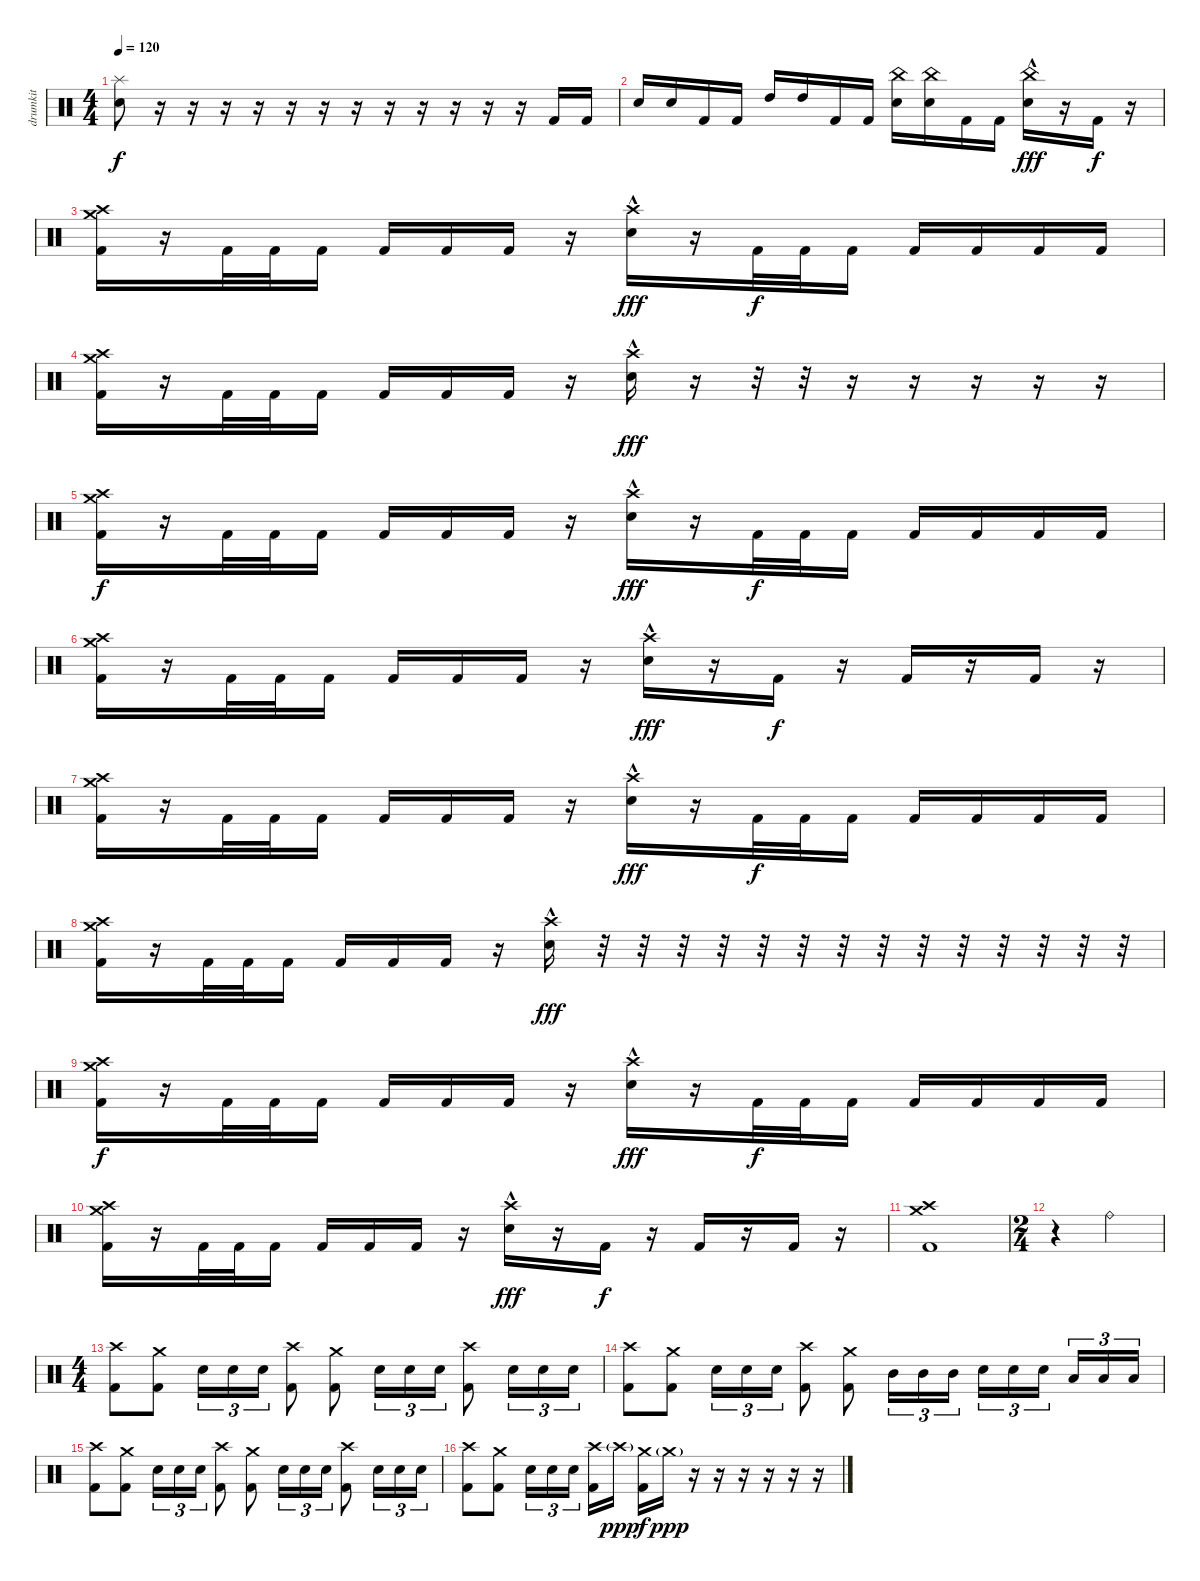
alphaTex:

\track ("drumkit" "drumkit") {instrument percussion}
\staff {score}
\articulation defaults
\ts (4 4)
\tempo 120
\clef neutral
\ks c
("Splash (hit)" "Electric Snare (hit)").8{dy f} r.16 r.16 r.16 r.16 r.16 r.16 r.16 r.16 r.16 r.16 r.16 r.16 "Kick (hit) 2".16 "Kick (hit) 2".16 |
"Electric Snare (hit)".16 "Electric Snare (hit)".16 "Kick (hit) 2".16 "Kick (hit) 2".16 "High Tom (hit)".16 "High Tom (hit)".16 "Kick (hit) 2".16 "Kick (hit) 2".16 ("China (hit)" "Electric Snare (hit)").16 ("China (hit)" "Electric Snare (hit)").16 "Kick (hit) 2".16 "Kick (hit) 2".16 ("China (hit)" "Electric Snare (hit)"{hac}).16{dy fff} r.16 "Kick (hit) 2".16{dy f} r.16 |
("Crash high (hit)" "Crash medium (hit)" "Kick (hit) 2").16 r.16 "Kick (hit) 2".32 "Kick (hit) 2".32 "Kick (hit) 2".16 "Kick (hit) 2".16 "Kick (hit) 2".16 "Kick (hit) 2".16 r.16 ("Crash high (hit)" "Electric Snare (hit)"{hac}).16{dy fff} r.16 "Kick (hit) 2".32{dy f} "Kick (hit) 2".32 "Kick (hit) 2".16 "Kick (hit) 2".16 "Kick (hit) 2".16 "Kick (hit) 2".16 "Kick (hit) 2".16 |
("Crash high (hit)" "Crash medium (hit)" "Kick (hit) 2").16 r.16 "Kick (hit) 2".32 "Kick (hit) 2".32 "Kick (hit) 2".16 "Kick (hit) 2".16 "Kick (hit) 2".16 "Kick (hit) 2".16 r.16 ("Crash high (hit)" "Electric Snare (hit)"{hac}).16{dy fff} r.16 r.32 r.32 r.16 r.16 r.16 r.16 r.16 |
("Crash high (hit)" "Crash medium (hit)" "Kick (hit) 2").16{dy f} r.16 "Kick (hit) 2".32 "Kick (hit) 2".32 "Kick (hit) 2".16 "Kick (hit) 2".16 "Kick (hit) 2".16 "Kick (hit) 2".16 r.16 ("Crash high (hit)" "Electric Snare (hit)"{hac}).16{dy fff} r.16 "Kick (hit) 2".32{dy f} "Kick (hit) 2".32 "Kick (hit) 2".16 "Kick (hit) 2".16 "Kick (hit) 2".16 "Kick (hit) 2".16 "Kick (hit) 2".16 |
("Crash high (hit)" "Crash medium (hit)" "Kick (hit) 2").16 r.16 "Kick (hit) 2".32 "Kick (hit) 2".32 "Kick (hit) 2".16 "Kick (hit) 2".16 "Kick (hit) 2".16 "Kick (hit) 2".16 r.16 ("Crash high (hit)" "Electric Snare (hit)"{hac}).16{dy fff} r.16 "Kick (hit) 2".16{dy f} r.16 "Kick (hit) 2".16 r.16 "Kick (hit) 2".16 r.16 |
("Crash high (hit)" "Crash medium (hit)" "Kick (hit) 2").16 r.16 "Kick (hit) 2".32 "Kick (hit) 2".32 "Kick (hit) 2".16 "Kick (hit) 2".16 "Kick (hit) 2".16 "Kick (hit) 2".16 r.16 ("Crash high (hit)" "Electric Snare (hit)"{hac}).16{dy fff} r.16 "Kick (hit) 2".32{dy f} "Kick (hit) 2".32 "Kick (hit) 2".16 "Kick (hit) 2".16 "Kick (hit) 2".16 "Kick (hit) 2".16 "Kick (hit) 2".16 |
("Crash high (hit)" "Crash medium (hit)" "Kick (hit) 2").16 r.16 "Kick (hit) 2".32 "Kick (hit) 2".32 "Kick (hit) 2".16 "Kick (hit) 2".16 "Kick (hit) 2".16 "Kick (hit) 2".16 r.16 ("Crash high (hit)" "Electric Snare (hit)"{hac}).16{dy fff} r.32 r.32 r.32 r.32 r.32 r.32 r.32 r.32 r.32 r.32 r.32 r.32 r.32 r.32 |
("Crash high (hit)" "Crash medium (hit)" "Kick (hit) 2").16{dy f} r.16 "Kick (hit) 2".32 "Kick (hit) 2".32 "Kick (hit) 2".16 "Kick (hit) 2".16 "Kick (hit) 2".16 "Kick (hit) 2".16 r.16 ("Crash high (hit)" "Electric Snare (hit)"{hac}).16{dy fff} r.16 "Kick (hit) 2".32{dy f} "Kick (hit) 2".32 "Kick (hit) 2".16 "Kick (hit) 2".16 "Kick (hit) 2".16 "Kick (hit) 2".16 "Kick (hit) 2".16 |
("Crash high (hit)" "Crash medium (hit)" "Kick (hit) 2").16 r.16 "Kick (hit) 2".32 "Kick (hit) 2".32 "Kick (hit) 2".16 "Kick (hit) 2".16 "Kick (hit) 2".16 "Kick (hit) 2".16 r.16 ("Crash high (hit)" "Electric Snare (hit)"{hac}).16{dy fff} r.16 "Kick (hit) 2".16{dy f} r.16 "Kick (hit) 2".16 r.16 "Kick (hit) 2".16 r.16 |
("Crash high (hit)" "Crash medium (hit)" "Kick (hit) 2").1 |
\ts (2 4)
r.4 "Ride (bell)".4 |
\ts (4 4)
("Crash high (hit)" "Kick (hit) 2").8 ("Crash medium (hit)" "Kick (hit) 2").8 "Electric Snare (hit)".16{tu (3 2)} "Electric Snare (hit)".16{tu (3 2)} "Electric Snare (hit)".16{tu (3 2)} ("Crash high (hit)" "Kick (hit) 2").8 ("Crash medium (hit)" "Kick (hit) 2").8 "Electric Snare (hit)".16{tu (3 2)} "Electric Snare (hit)".16{tu (3 2)} "Electric Snare (hit)".16{tu (3 2)} ("Crash high (hit)" "Kick (hit) 2").8 "Electric Snare (hit)".16{tu (3 2)} "Electric Snare (hit)".16{tu (3 2)} "Electric Snare (hit)".16{tu (3 2)} |
("Crash high (hit)" "Kick (hit) 2").8 ("Crash medium (hit)" "Kick (hit) 2").8 "Electric Snare (hit)".16{tu (3 2)} "Electric Snare (hit)".16{tu (3 2)} "Electric Snare (hit)".16{tu (3 2)} ("Crash high (hit)" "Kick (hit) 2").8 ("Crash medium (hit)" "Kick (hit) 2").8 "Mid Tom (hit)".16{tu (3 2)} "Mid Tom (hit)".16{tu (3 2)} "Mid Tom (hit)".16{tu (3 2)} "Electric Snare (hit)".16{tu (3 2)} "Electric Snare (hit)".16{tu (3 2)} "Electric Snare (hit)".16{tu (3 2) beam splitsecondary} "Low Tom (hit)".16{tu (3 2)} "Low Tom (hit)".16{tu (3 2)} "Low Tom (hit)".16{tu (3 2)} |
("Crash high (hit)" "Kick (hit) 2").8 ("Crash medium (hit)" "Kick (hit) 2").8 "Electric Snare (hit)".16{tu (3 2)} "Electric Snare (hit)".16{tu (3 2)} "Electric Snare (hit)".16{tu (3 2)} ("Crash high (hit)" "Kick (hit) 2").8 ("Crash medium (hit)" "Kick (hit) 2").8 "Electric Snare (hit)".16{tu (3 2)} "Electric Snare (hit)".16{tu (3 2)} "Electric Snare (hit)".16{tu (3 2)} ("Crash high (hit)" "Kick (hit) 2").8 "Electric Snare (hit)".16{tu (3 2)} "Electric Snare (hit)".16{tu (3 2)} "Electric Snare (hit)".16{tu (3 2)} |
("Crash high (hit)" "Kick (hit) 2").8 ("Crash medium (hit)" "Kick (hit) 2").8 "Electric Snare (hit)".16{tu (3 2)} "Electric Snare (hit)".16{tu (3 2)} "Electric Snare (hit)".16{tu (3 2) beam splitsecondary} ("Crash high (hit)" "Kick (hit) 2").16 "Crash high (hit)"{g}.16{dy ppp} ("Crash medium (hit)" "Kick (hit) 2").16{dy f} "Crash medium (hit)"{g}.16{dy ppp} r.16 r.16 r.16 r.16 r.16 r.16
